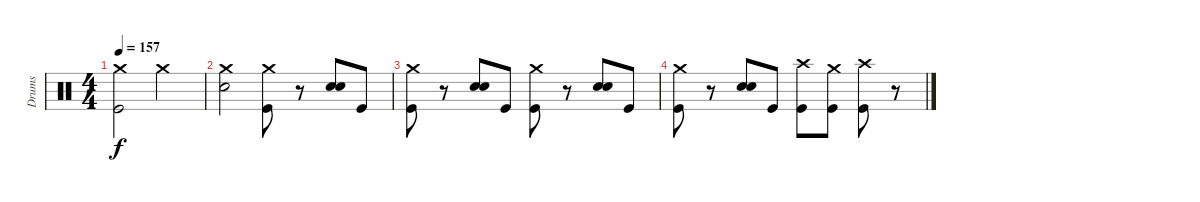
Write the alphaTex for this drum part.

\track ("Drums" "Drums") {instrument percussion}
\staff {score}
\articulation defaults
\ts (4 4)
\tempo 157
\clef neutral
\ks c
("Crash medium (hit)" "Kick (hit)").2{dy f} "Crash medium (hit)".2 |
("Crash medium (hit)" "Electric Snare (hit)").2 ("Crash medium (hit)" "Kick (hit)").8 r.8 ("Electric Snare (hit)" "Electric Snare (hit)").8{bd 240} "Kick (hit)".8 |
("Crash medium (hit)" "Kick (hit)").8 r.8 ("Electric Snare (hit)" "Electric Snare (hit)").8{bd 240} "Kick (hit)".8 ("Crash medium (hit)" "Kick (hit)").8 r.8 ("Electric Snare (hit)" "Electric Snare (hit)").8{bd 240} "Kick (hit)".8 |
("Crash medium (hit)" "Kick (hit)").8 r.8 ("Electric Snare (hit)" "Electric Snare (hit)").8{bd 240} "Kick (hit)".8 ("Crash high (hit)" "Kick (hit)").8 ("Crash medium (hit)" "Kick (hit)").8 ("Crash high (hit)" "Kick (hit)").8 r.8
